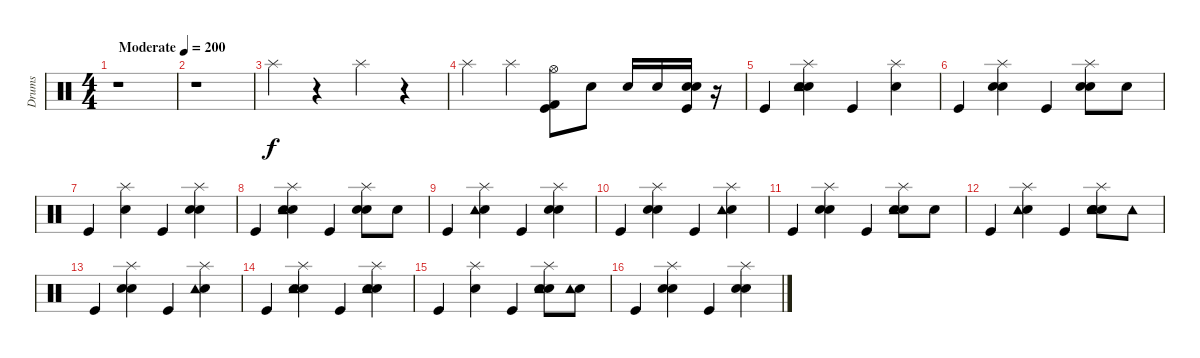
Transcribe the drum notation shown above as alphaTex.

\track ("Drums" "Drums") {instrument percussion}
\staff {score}
\articulation defaults
\ts (4 4)
\tempo (200 "Moderate")
\clef neutral
\ks c
r.1{dy f} |
r.1 |
"Splash (hit)".4 r.4 "Splash (hit)".4 r.4 |
"Splash (hit)".4 "Splash (hit)".4 ("Kick (hit)" "Kick (hit) 2" "Hi-Hat (open)").8 "Snare (hit) 2".8 "Snare (hit) 2".16 "Snare (hit) 2".16 ("Kick (hit)" "Snare (hit) 2" "Electric Snare (hit)").16 r.16 |
"Kick (hit)".4 ("Snare (hit) 2" "Electric Snare (hit)" "Tambourine (hit)" "Splash (hit)").4 "Kick (hit)".4 ("Snare (hit) 2" "Splash (hit)").4 |
"Kick (hit)".4 ("Snare (hit) 2" "Electric Snare (hit)" "Splash (hit)").4 "Kick (hit)".4 ("Snare (hit) 2" "Electric Snare (hit)" "Splash (hit)").8 "Electric Snare (hit)".8 |
"Kick (hit)".4 ("Snare (hit) 2" "Splash (hit)").4 "Kick (hit)".4 ("Snare (hit) 2" "Electric Snare (hit)" "Splash (hit)").4 |
"Kick (hit)".4 ("Snare (hit) 2" "Electric Snare (hit)" "Tambourine (hit)" "Splash (hit)").4 "Kick (hit)".4 ("Snare (hit) 2" "Electric Snare (hit)" "Splash (hit)").8 "Electric Snare (hit)".8 |
"Kick (hit)".4 ("Snare (hit) 2" "Tambourine (hit)" "Splash (hit)").4 "Kick (hit)".4 ("Snare (hit) 2" "Electric Snare (hit)" "Splash (hit)").4 |
"Kick (hit)".4 ("Snare (hit) 2" "Electric Snare (hit)" "Splash (hit)").4 "Kick (hit)".4 ("Snare (hit) 2" "Tambourine (hit)" "Splash (hit)").4 |
"Kick (hit)".4 ("Snare (hit) 2" "Electric Snare (hit)" "Splash (hit)").4 "Kick (hit)".4 ("Snare (hit) 2" "Electric Snare (hit)" "Tambourine (hit)" "Splash (hit)").8 "Electric Snare (hit)".8 |
"Kick (hit)".4 ("Snare (hit) 2" "Tambourine (hit)" "Splash (hit)").4 "Kick (hit)".4 ("Snare (hit) 2" "Electric Snare (hit)" "Electric Snare (hit)" "Tambourine (hit)" "Splash (hit)").8 "Tambourine (hit)".8 |
"Kick (hit)".4 ("Snare (hit) 2" "Electric Snare (hit)" "Splash (hit)").4 "Kick (hit)".4 ("Snare (hit) 2" "Tambourine (hit)" "Splash (hit)").4 |
"Kick (hit)".4 ("Snare (hit) 2" "Electric Snare (hit)" "Tambourine (hit)" "Splash (hit)").4 "Kick (hit)".4 ("Snare (hit) 2" "Electric Snare (hit)" "Tambourine (hit)" "Splash (hit)").4 |
"Kick (hit)".4 ("Snare (hit) 2" "Splash (hit)").4 "Kick (hit)".4 ("Snare (hit) 2" "Electric Snare (hit)" "Tambourine (hit)" "Splash (hit)").8 ("Electric Snare (hit)" "Tambourine (hit)").8 |
"Kick (hit)".4 ("Snare (hit) 2" "Electric Snare (hit)" "Splash (hit)").4 "Kick (hit)".4 ("Snare (hit) 2" "Electric Snare (hit)" "Splash (hit)").4
